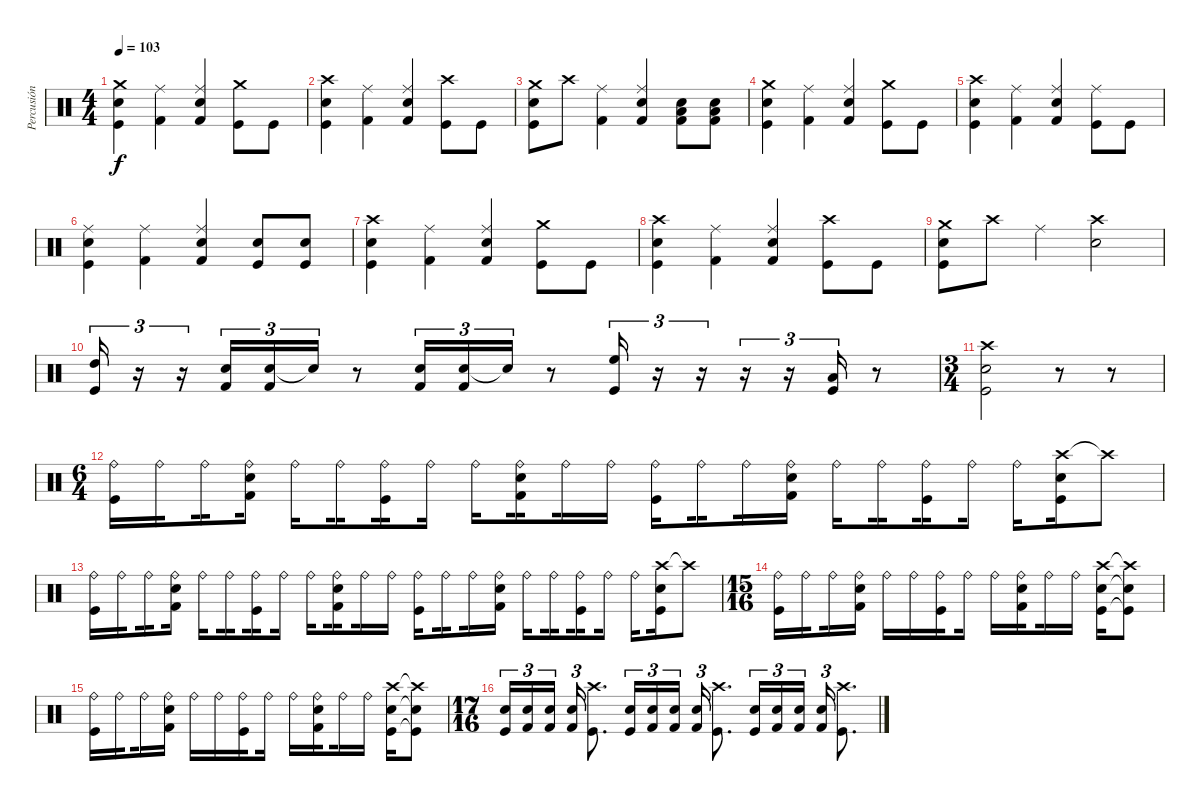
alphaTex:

\track ("Percusión" "Percusión") {instrument percussion}
\staff {score}
\articulation defaults
\ts (4 4)
\tempo 103
\clef neutral
\ks c
("Crash medium (hit)" "Kick (hit)" "Snare (hit) 2").4{dy f} ("Ride (middle)" "Kick (hit) 2").4 ("Ride (middle)" "Snare (hit) 2" "Kick (hit) 2").4 ("Crash medium (hit)" "Kick (hit)").8 "Kick (hit)".8 |
("Crash high (hit)" "Snare (hit) 2" "Kick (hit)").4 ("Ride (middle)" "Kick (hit) 2").4 ("Ride (middle)" "Snare (hit) 2" "Kick (hit) 2").4 ("Crash high (hit)" "Kick (hit)").8 "Kick (hit)".8 |
("Crash medium (hit)" "Kick (hit)" "Snare (hit) 2").8 "Crash high (hit)".8 ("Ride (middle)" "Kick (hit) 2").4 ("Ride (middle)" "Snare (hit) 2" "Kick (hit) 2").4 ("Snare (hit) 2" "Kick (hit) 2" "Low Floor Tom (hit)").8 ("Snare (hit) 2" "Kick (hit) 2" "Low Floor Tom (hit)").8 |
("Crash medium (hit)" "Kick (hit)" "Snare (hit) 2").4 ("Ride (middle)" "Kick (hit) 2").4 ("Ride (middle)" "Snare (hit) 2" "Kick (hit) 2").4 ("Crash medium (hit)" "Kick (hit)").8 "Kick (hit)".8 |
("Crash high (hit)" "Kick (hit)" "Snare (hit) 2").4 ("Ride (middle)" "Kick (hit) 2").4 ("Ride (middle)" "Snare (hit) 2" "Kick (hit) 2").4 ("Ride (middle)" "Kick (hit)").8 "Kick (hit)".8 |
("Ride (middle)" "Kick (hit)" "Snare (hit) 2").4 ("Ride (middle)" "Kick (hit) 2").4 ("Ride (middle)" "Snare (hit) 2" "Kick (hit) 2").4 ("Snare (hit) 2" "Kick (hit)").8 ("Snare (hit) 2" "Kick (hit)").8 |
("Crash high (hit)" "Kick (hit)" "Snare (hit) 2").4 ("Ride (middle)" "Kick (hit) 2").4 ("Ride (middle)" "Snare (hit) 2" "Kick (hit) 2").4 ("Crash medium (hit)" "Kick (hit)").8 "Kick (hit)".8 |
("Crash high (hit)" "Snare (hit) 2" "Kick (hit)").4 ("Ride (middle)" "Kick (hit) 2").4 ("Ride (middle)" "Snare (hit) 2" "Kick (hit) 2").4 ("Crash high (hit)" "Kick (hit)").8 "Kick (hit)".8 |
("Crash medium (hit)" "Kick (hit)" "Snare (hit) 2").8 "Crash high (hit)".8 "Ride (middle)".4 ("Crash high (hit)" "Snare (hit) 2").2 |
("High Tom (hit)" "Kick (hit)").16{tu (3 2)} r.16{tu (3 2)} r.16{tu (3 2)} ("Snare (hit) 2" "Kick (hit) 2").16{tu (3 2)} ("Snare (hit) 2" "Kick (hit) 2").16{tu (3 2)} "Snare (hit) 2"{t}.16{tu (3 2)} r.8 ("Snare (hit) 2" "Kick (hit) 2").16{tu (3 2)} ("Snare (hit) 2" "Kick (hit) 2").16{tu (3 2)} "Snare (hit) 2"{t}.16{tu (3 2)} r.8 ("High Floor Tom (hit)" "Kick (hit)").16{tu (3 2)} r.16{tu (3 2)} r.16{tu (3 2)} r.16{tu (3 2)} r.16{tu (3 2)} ("Low Tom (hit)" "Kick (hit)").16{tu (3 2)} r.8 |
\ts (3 4)
("Snare (hit) 2" "Kick (hit)" "Crash high (hit)").2 r.8 r.8 |
\ts (6 4)
("Ride (bell)" "Kick (hit)").16 "Ride (bell)".16{beam splitsecondary} "Ride (bell)".16{beam splitsecondary} ("Ride (bell)" "Snare (hit) 2" "Kick (hit) 2").16{beam splitsecondary} "Ride (bell)".16{beam splitsecondary} "Ride (bell)".16{beam splitsecondary} ("Ride (bell)" "Kick (hit)").16{beam splitsecondary} "Ride (bell)".16 "Ride (bell)".16{beam splitsecondary} ("Ride (bell)" "Snare (hit) 2" "Kick (hit) 2").16{beam splitsecondary} "Ride (bell)".16 "Ride (bell)".16 ("Ride (bell)" "Kick (hit)").16{beam splitsecondary} "Ride (bell)".16{beam splitsecondary} "Ride (bell)".16 ("Ride (bell)" "Snare (hit) 2" "Kick (hit) 2").16{beam splitsecondary} "Ride (bell)".16{beam splitsecondary} "Ride (bell)".16{beam splitsecondary} ("Ride (bell)" "Kick (hit)").16{beam splitsecondary} "Ride (bell)".16{beam splitsecondary} "Ride (bell)".16{beam splitsecondary} ("Crash high (hit)" "Snare (hit) 2" "Kick (hit)").16 "Crash high (hit)"{t}.8 |
("Ride (bell)" "Kick (hit)").16 "Ride (bell)".16{beam splitsecondary} "Ride (bell)".16{beam splitsecondary} ("Ride (bell)" "Snare (hit) 2" "Kick (hit) 2").16{beam splitsecondary} "Ride (bell)".16{beam splitsecondary} "Ride (bell)".16{beam splitsecondary} ("Ride (bell)" "Kick (hit)").16{beam splitsecondary} "Ride (bell)".16 "Ride (bell)".16{beam splitsecondary} ("Ride (bell)" "Snare (hit) 2" "Kick (hit) 2").16{beam splitsecondary} "Ride (bell)".16 "Ride (bell)".16 ("Ride (bell)" "Kick (hit)").16{beam splitsecondary} "Ride (bell)".16{beam splitsecondary} "Ride (bell)".16 ("Ride (bell)" "Snare (hit) 2" "Kick (hit) 2").16{beam splitsecondary} "Ride (bell)".16{beam splitsecondary} "Ride (bell)".16{beam splitsecondary} ("Ride (bell)" "Kick (hit)").16{beam splitsecondary} "Ride (bell)".16{beam splitsecondary} "Ride (bell)".16{beam splitsecondary} ("Crash high (hit)" "Snare (hit) 2" "Kick (hit)").16 "Crash high (hit)"{t}.8 |
\ts (15 16)
("Ride (bell)" "Kick (hit)").16 "Ride (bell)".16{beam splitsecondary} "Ride (bell)".16 ("Ride (bell)" "Snare (hit) 2" "Kick (hit) 2").16{beam splitsecondary} "Ride (bell)".16 "Ride (bell)".16 ("Ride (bell)" "Kick (hit)").16{beam splitsecondary} "Ride (bell)".16 "Ride (bell)".16 ("Ride (bell)" "Snare (hit) 2" "Kick (hit) 2").16{beam splitsecondary} "Ride (bell)".16 "Ride (bell)".16 ("Crash high (hit)" "Kick (hit)" "Snare (hit) 2").16 ("Crash high (hit)"{t} "Kick (hit)"{t} "Snare (hit) 2"{t}).8 |
("Ride (bell)" "Kick (hit)").16 "Ride (bell)".16{beam splitsecondary} "Ride (bell)".16 ("Ride (bell)" "Snare (hit) 2" "Kick (hit) 2").16{beam splitsecondary} "Ride (bell)".16 "Ride (bell)".16 ("Ride (bell)" "Kick (hit)").16{beam splitsecondary} "Ride (bell)".16 "Ride (bell)".16 ("Ride (bell)" "Snare (hit) 2" "Kick (hit) 2").16{beam splitsecondary} "Ride (bell)".16 "Ride (bell)".16 ("Crash high (hit)" "Kick (hit)" "Snare (hit) 2").16 ("Crash high (hit)"{t} "Kick (hit)"{t} "Snare (hit) 2"{t}).8 |
\ts (17 16)
("Snare (hit) 2" "Kick (hit)").16{tu (3 2)} ("Snare (hit) 2" "Kick (hit) 2").16{tu (3 2)} ("Snare (hit) 2" "Kick (hit) 2").16{tu (3 2)} ("Snare (hit) 2" "Kick (hit) 2").16{tu (3 2)} ("Crash high (hit)" "Kick (hit)").8{d} ("Snare (hit) 2" "Kick (hit)").16{tu (3 2)} ("Snare (hit) 2" "Kick (hit) 2").16{tu (3 2)} ("Snare (hit) 2" "Kick (hit) 2").16{tu (3 2)} ("Snare (hit) 2" "Kick (hit) 2").16{tu (3 2)} ("Crash high (hit)" "Kick (hit)").8{d} ("Snare (hit) 2" "Kick (hit)").16{tu (3 2)} ("Snare (hit) 2" "Kick (hit) 2").16{tu (3 2)} ("Snare (hit) 2" "Kick (hit) 2").16{tu (3 2)} ("Snare (hit) 2" "Kick (hit) 2").16{tu (3 2)} ("Crash high (hit)" "Kick (hit)").8{d}
